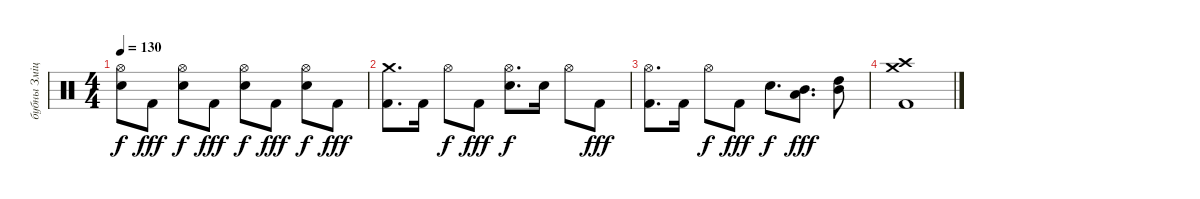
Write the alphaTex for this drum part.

\track ("бубны Змiцер" "бубны Змiц") {instrument percussion}
\staff {score}
\articulation defaults
\ts (4 4)
\tempo 130
\clef neutral
\ks c
("Hi-Hat (open)" "Electric Snare (hit)").8{dy f} "Kick (hit) 2".8{dy fff} ("Hi-Hat (open)" "Electric Snare (hit)").8{dy f} "Kick (hit) 2".8{dy fff} ("Hi-Hat (open)" "Electric Snare (hit)").8{dy f} "Kick (hit) 2".8{dy fff} ("Hi-Hat (open)" "Electric Snare (hit)").8{dy f} "Kick (hit) 2".8{dy fff} |
("Crash medium (hit)" "Kick (hit) 2").8{d} "Kick (hit) 2".16 "Hi-Hat (open)".8{dy f} "Kick (hit) 2".8{dy fff} ("Hi-Hat (open)" "Electric Snare (hit)").8{d dy f} "Electric Snare (hit)".16 "Hi-Hat (open)".8 "Kick (hit) 2".8{dy fff} |
("Hi-Hat (open)" "Kick (hit) 2").8{d} "Kick (hit) 2".16 "Hi-Hat (open)".8{dy f} "Kick (hit) 2".8{dy fff} "Electric Snare (hit)".8{d dy f} ("Mid Tom (hit)" "Low Tom (hit)").8{d dy fff} ("Mid Tom (hit)" "High Tom (hit)").8 |
("Crash high (hit)" "Crash medium (hit)" "Kick (hit) 2").1
